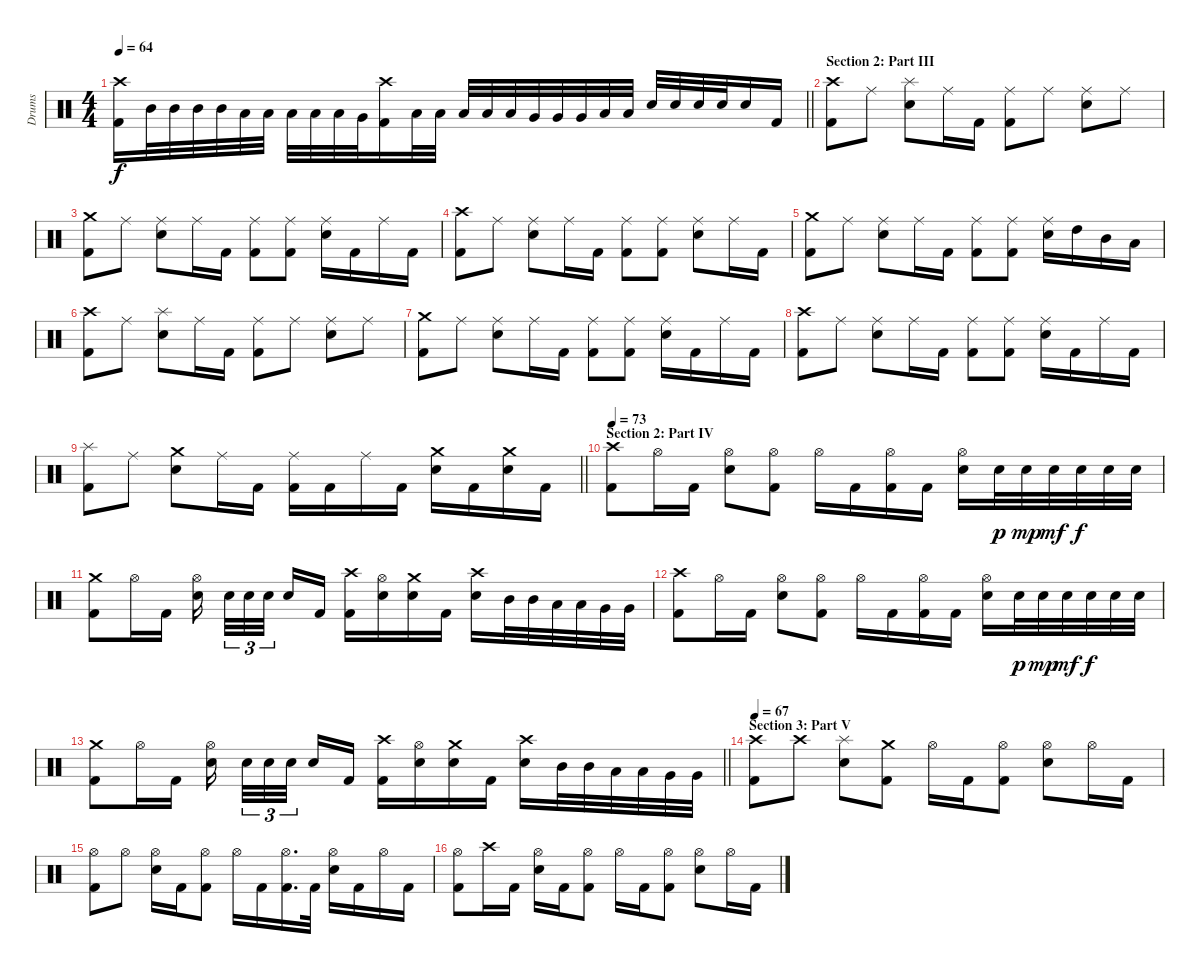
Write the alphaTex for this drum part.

\track ("Drums" "Drums") {instrument percussion}
\staff {score}
\articulation defaults
\ts (4 4)
\tempo 64
\clef neutral
\barLineRight lightlight
\ks c
("Crash high (hit)" "Kick (hit) 2").16{dy f} "Mid Tom (hit)".32 "Mid Tom (hit)".32 "Mid Tom (hit)".32 "Mid Tom (hit)".32 "Low Tom (hit)".32 "Low Tom (hit)".32 "Low Tom (hit)".32 "Low Tom (hit)".32 "Low Tom (hit)".32 "Very Low Tom (hit)".32 ("Crash high (hit)" "Kick (hit) 2").16 "Low Tom (hit)".32 "Low Tom (hit)".32 "Low Tom (hit)".32 "Low Tom (hit)".32 "Low Tom (hit)".32 "Very Low Tom (hit)".32 "Very Low Tom (hit)".32 "Very Low Tom (hit)".32 "Low Floor Tom (hit)".32 "Low Floor Tom (hit)".32 "Electric Snare (hit)".32 "Electric Snare (hit)".32 "Electric Snare (hit)".32 "Electric Snare (hit)".32 "Electric Snare (hit)".16 "Kick (hit) 2".16 |
\section ("" "Section 2: Part III")
("Crash high (hit)" "Kick (hit) 2").8 "Ride (middle)".8 ("Splash (hit)" "Electric Snare (hit)").8 "Ride (middle)".16 "Kick (hit) 2".16 ("Ride (middle)" "Kick (hit) 2").8 "Ride (middle)".8 ("Ride (middle)" "Electric Snare (hit)").8 "Ride (middle)".8 |
("Crash medium (hit)" "Kick (hit) 2").8 "Ride (middle)".8 ("Ride (middle)" "Electric Snare (hit)").8 "Ride (middle)".16 "Kick (hit) 2".16 ("Ride (middle)" "Kick (hit) 2").8 ("Ride (middle)" "Kick (hit) 2").8 ("Ride (middle)" "Electric Snare (hit)").16 "Kick (hit) 2".16 "Ride (middle)".16 "Kick (hit) 2".16 |
("Crash high (hit)" "Kick (hit) 2").8 "Ride (middle)".8 ("Ride (middle)" "Electric Snare (hit)").8 "Ride (middle)".16 "Kick (hit) 2".16 ("Ride (middle)" "Kick (hit) 2").8 ("Ride (middle)" "Kick (hit) 2").8 ("Ride (middle)" "Electric Snare (hit)").8 "Ride (middle)".16 "Kick (hit) 2".16 |
("Crash medium (hit)" "Kick (hit) 2").8 "Ride (middle)".8 ("Ride (middle)" "Electric Snare (hit)").8 "Ride (middle)".16 "Kick (hit) 2".16 ("Ride (middle)" "Kick (hit) 2").8 ("Ride (middle)" "Kick (hit) 2").8 ("Ride (middle)" "Electric Snare (hit)").16 "High Tom (hit)".16 "Mid Tom (hit)".16 "Low Floor Tom (hit)".16 |
("Crash high (hit)" "Kick (hit) 2").8 "Ride (middle)".8 ("Splash (hit)" "Electric Snare (hit)").8 "Ride (middle)".16 "Kick (hit) 2".16 ("Ride (middle)" "Kick (hit) 2").8 "Ride (middle)".8 ("Ride (middle)" "Electric Snare (hit)").8 "Ride (middle)".8 |
("Crash medium (hit)" "Kick (hit) 2").8 "Ride (middle)".8 ("Ride (middle)" "Electric Snare (hit)").8 "Ride (middle)".16 "Kick (hit) 2".16 ("Ride (middle)" "Kick (hit) 2").8 ("Ride (middle)" "Kick (hit) 2").8 ("Ride (middle)" "Electric Snare (hit)").16 "Kick (hit) 2".16 "Ride (middle)".16 "Kick (hit) 2".16 |
("Crash high (hit)" "Kick (hit) 2").8 "Ride (middle)".8 ("Ride (middle)" "Electric Snare (hit)").8 "Ride (middle)".16 "Kick (hit) 2".16 ("Ride (middle)" "Kick (hit) 2").8 ("Ride (middle)" "Kick (hit) 2").8 ("Ride (middle)" "Electric Snare (hit)").16 "Kick (hit) 2".16 "Ride (middle)".16 "Kick (hit) 2".16 |
\barLineRight lightlight
("Splash (hit)" "Kick (hit) 2").8 "Ride (middle)".8 ("Crash medium (hit)" "Electric Snare (hit)").8 "Ride (middle)".16 "Kick (hit) 2".16 ("Ride (middle)" "Kick (hit) 2").16 "Kick (hit) 2".16 "Ride (middle)".16 "Kick (hit) 2".16 ("Crash medium (hit)" "Electric Snare (hit)").16 "Kick (hit) 2".16 ("Crash medium (hit)" "Electric Snare (hit)").16 "Kick (hit) 2".16 |
\section ("" "Section 2: Part IV")
\tempo 73
("Crash high (hit)" "Kick (hit) 2").8 "Hi-Hat (open)".16 "Kick (hit) 2".16 ("Hi-Hat (open)" "Electric Snare (hit)").8 ("Hi-Hat (open)" "Kick (hit) 2").8 "Hi-Hat (open)".16 "Kick (hit) 2".16 ("Hi-Hat (open)" "Kick (hit) 2").16 "Kick (hit) 2".16 ("Hi-Hat (open)" "Electric Snare (hit)").16 "Electric Snare (hit)".32{dy p} "Electric Snare (hit)".32{dy mp} "Electric Snare (hit)".32{dy mf} "Electric Snare (hit)".32{dy f} "Electric Snare (hit)".32 "Electric Snare (hit)".32 |
("Crash medium (hit)" "Kick (hit) 2").8 "Hi-Hat (open)".16 "Kick (hit) 2".16 ("Hi-Hat (open)" "Electric Snare (hit)").16{beam splitsecondary} "Electric Snare (hit)".32{tu (3 2)} "Electric Snare (hit)".32{tu (3 2)} "Electric Snare (hit)".32{tu (3 2) beam splitsecondary} "Electric Snare (hit)".16 "Kick (hit) 2".16 ("Crash high (hit)" "Kick (hit) 2").16 ("Hi-Hat (open)" "Electric Snare (hit)").16 ("Crash medium (hit)" "Electric Snare (hit)").16 "Kick (hit) 2".16 ("Crash high (hit)" "Electric Snare (hit)").16 "Mid Tom (hit)".32 "Mid Tom (hit)".32 "Low Tom (hit)".32 "Low Tom (hit)".32 "Very Low Tom (hit)".32 "Very Low Tom (hit)".32 |
("Crash high (hit)" "Kick (hit) 2").8 "Hi-Hat (open)".16 "Kick (hit) 2".16 ("Hi-Hat (open)" "Electric Snare (hit)").8 ("Hi-Hat (open)" "Kick (hit) 2").8 "Hi-Hat (open)".16 "Kick (hit) 2".16 ("Hi-Hat (open)" "Kick (hit) 2").16 "Kick (hit) 2".16 ("Hi-Hat (open)" "Electric Snare (hit)").16 "Electric Snare (hit)".32{dy p} "Electric Snare (hit)".32{dy mp} "Electric Snare (hit)".32{dy mf} "Electric Snare (hit)".32{dy f} "Electric Snare (hit)".32 "Electric Snare (hit)".32 |
\barLineRight lightlight
("Crash medium (hit)" "Kick (hit) 2").8 "Hi-Hat (open)".16 "Kick (hit) 2".16 ("Hi-Hat (open)" "Electric Snare (hit)").16{beam splitsecondary} "Electric Snare (hit)".32{tu (3 2)} "Electric Snare (hit)".32{tu (3 2)} "Electric Snare (hit)".32{tu (3 2) beam splitsecondary} "Electric Snare (hit)".16 "Kick (hit) 2".16 ("Crash high (hit)" "Kick (hit) 2").16 ("Hi-Hat (open)" "Electric Snare (hit)").16 ("Crash medium (hit)" "Electric Snare (hit)").16 "Kick (hit) 2".16 ("Crash high (hit)" "Electric Snare (hit)").16 "Mid Tom (hit)".32 "Mid Tom (hit)".32 "Low Tom (hit)".32 "Low Tom (hit)".32 "Very Low Tom (hit)".32 "Very Low Tom (hit)".32 |
\section ("" "Section 3: Part V")
\tempo 67
("Crash high (hit)" "Kick (hit) 2").8 "Crash high (hit)".8 ("Splash (hit)" "Electric Snare (hit)").8 ("Crash medium (hit)" "Kick (hit) 2").8 "Hi-Hat (open)".16 "Kick (hit) 2".16 ("Hi-Hat (open)" "Kick (hit) 2").8 ("Hi-Hat (open)" "Electric Snare (hit)").8 "Hi-Hat (open)".16 "Kick (hit) 2".16 |
("Hi-Hat (open)" "Kick (hit) 2").8 "Hi-Hat (open)".8 ("Hi-Hat (open)" "Electric Snare (hit)").16 "Kick (hit) 2".16 ("Hi-Hat (open)" "Kick (hit) 2").8 "Hi-Hat (open)".16 "Kick (hit) 2".16 ("Hi-Hat (open)" "Kick (hit) 2").16{d} "Kick (hit) 2".32 ("Hi-Hat (open)" "Electric Snare (hit)").16 "Kick (hit) 2".16 "Hi-Hat (open)".16 "Kick (hit) 2".16 |
("Hi-Hat (open)" "Kick (hit) 2").8 "Crash high (hit)".16 "Kick (hit) 2".16 ("Hi-Hat (open)" "Electric Snare (hit)").16 "Kick (hit) 2".16 ("Hi-Hat (open)" "Kick (hit) 2").8 "Hi-Hat (open)".16 "Kick (hit) 2".16 ("Hi-Hat (open)" "Kick (hit) 2").8 ("Hi-Hat (open)" "Electric Snare (hit)").8 "Hi-Hat (open)".16 "Kick (hit) 2".16
